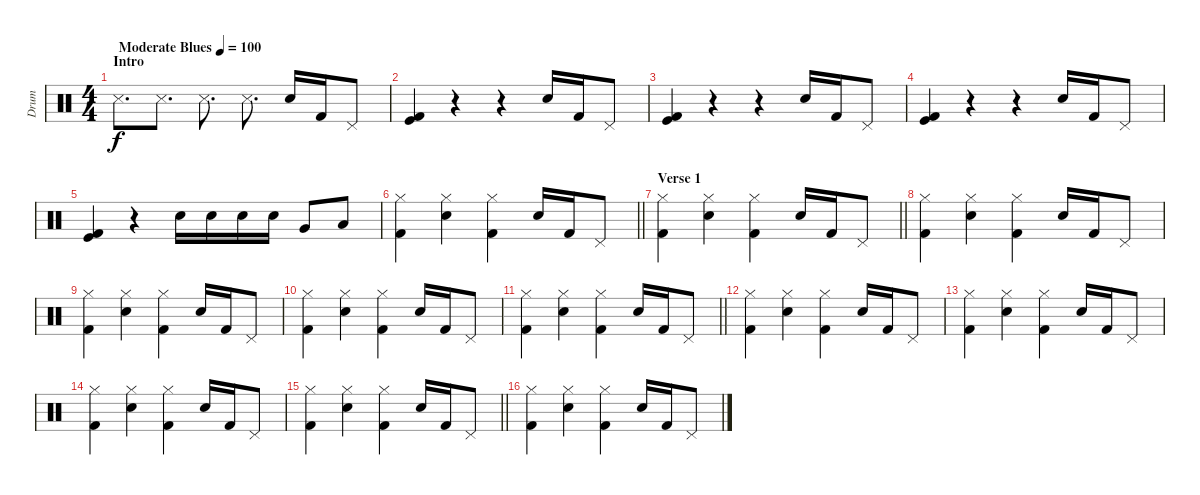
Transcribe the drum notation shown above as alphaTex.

\track ("Drum" "Drum") {instrument percussion}
\staff {score}
\articulation defaults
\ts (4 4)
\section ("" "Intro")
\tempo (100 "Moderate Blues")
\clef neutral
\ks c "Snare (side stick) 3".8{d dy f} "Snare (side stick) 3".8{d} "Snare (side stick) 3".8{d} "Snare (side stick) 3".8{d} "Electric Snare (hit)".16 "Kick (hit) 2".16 "Pedal Hi-Hat (hit)".8
|
("Kick (hit) 2" "Kick (hit)").4 r.4 r.4 "Electric Snare (hit)".16 "Kick (hit) 2".16 "Pedal Hi-Hat (hit)".8 |
("Kick (hit) 2" "Kick (hit)").4 r.4 r.4 "Electric Snare (hit)".16 "Kick (hit) 2".16 "Pedal Hi-Hat (hit)".8 |
("Kick (hit) 2" "Kick (hit)").4 r.4 r.4 "Electric Snare (hit)".16 "Kick (hit) 2".16 "Pedal Hi-Hat (hit)".8 |
("Kick (hit) 2" "Kick (hit)").4 r.4 "Electric Snare (hit)".16 "Electric Snare (hit)".16 "Electric Snare (hit)".16 "Electric Snare (hit)".16 "Very Low Tom (hit)".8 "Low Tom (hit)".8 |
\barLineRight lightlight
("Hi-Hat (closed)" "Kick (hit) 2").4 ("Hi-Hat (closed)" "Electric Snare (hit)").4 ("Hi-Hat (closed)" "Kick (hit) 2").4 "Electric Snare (hit)".16 "Kick (hit) 2".16 "Pedal Hi-Hat (hit)".8 |
\section ("" "Verse 1")
\barLineRight lightlight
("Hi-Hat (closed)" "Kick (hit) 2").4 ("Hi-Hat (closed)" "Electric Snare (hit)").4 ("Hi-Hat (closed)" "Kick (hit) 2").4 "Electric Snare (hit)".16 "Kick (hit) 2".16 "Pedal Hi-Hat (hit)".8 |
("Hi-Hat (closed)" "Kick (hit) 2").4 ("Hi-Hat (closed)" "Electric Snare (hit)").4 ("Hi-Hat (closed)" "Kick (hit) 2").4 "Electric Snare (hit)".16 "Kick (hit) 2".16 "Pedal Hi-Hat (hit)".8 |
("Hi-Hat (closed)" "Kick (hit) 2").4 ("Hi-Hat (closed)" "Electric Snare (hit)").4 ("Hi-Hat (closed)" "Kick (hit) 2").4 "Electric Snare (hit)".16 "Kick (hit) 2".16 "Pedal Hi-Hat (hit)".8 |
("Hi-Hat (closed)" "Kick (hit) 2").4 ("Hi-Hat (closed)" "Electric Snare (hit)").4 ("Hi-Hat (closed)" "Kick (hit) 2").4 "Electric Snare (hit)".16 "Kick (hit) 2".16 "Pedal Hi-Hat (hit)".8 |
\barLineRight lightlight
("Hi-Hat (closed)" "Kick (hit) 2").4 ("Hi-Hat (closed)" "Electric Snare (hit)").4 ("Hi-Hat (closed)" "Kick (hit) 2").4 "Electric Snare (hit)".16 "Kick (hit) 2".16 "Pedal Hi-Hat (hit)".8 |
("Hi-Hat (closed)" "Kick (hit) 2").4 ("Hi-Hat (closed)" "Electric Snare (hit)").4 ("Hi-Hat (closed)" "Kick (hit) 2").4 "Electric Snare (hit)".16 "Kick (hit) 2".16 "Pedal Hi-Hat (hit)".8 |
("Hi-Hat (closed)" "Kick (hit) 2").4 ("Hi-Hat (closed)" "Electric Snare (hit)").4 ("Hi-Hat (closed)" "Kick (hit) 2").4 "Electric Snare (hit)".16 "Kick (hit) 2".16 "Pedal Hi-Hat (hit)".8 |
("Hi-Hat (closed)" "Kick (hit) 2").4 ("Hi-Hat (closed)" "Electric Snare (hit)").4 ("Hi-Hat (closed)" "Kick (hit) 2").4 "Electric Snare (hit)".16 "Kick (hit) 2".16 "Pedal Hi-Hat (hit)".8 |
\barLineRight lightlight
("Hi-Hat (closed)" "Kick (hit) 2").4 ("Hi-Hat (closed)" "Electric Snare (hit)").4 ("Hi-Hat (closed)" "Kick (hit) 2").4 "Electric Snare (hit)".16 "Kick (hit) 2".16 "Pedal Hi-Hat (hit)".8 |
("Hi-Hat (closed)" "Kick (hit) 2").4 ("Hi-Hat (closed)" "Electric Snare (hit)").4 ("Hi-Hat (closed)" "Kick (hit) 2").4 "Electric Snare (hit)".16 "Kick (hit) 2".16 "Pedal Hi-Hat (hit)".8
